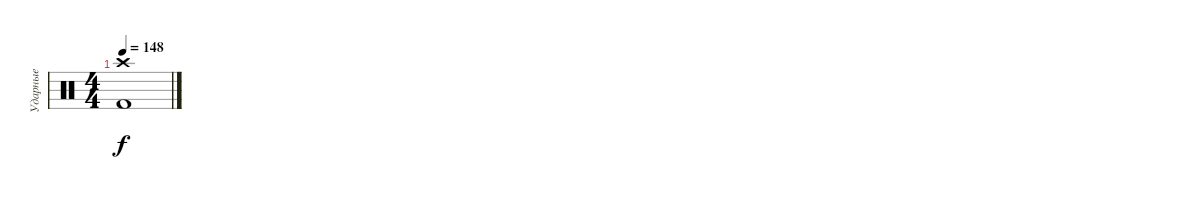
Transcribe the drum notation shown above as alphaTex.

\track ("Ударные" "Ударные") {instrument percussion}
\staff {score}
\articulation defaults
\ts (4 4)
\tempo 148
\clef neutral
\ks c
("Crash high (hit)" "Kick (hit) 2").1{dy f}
